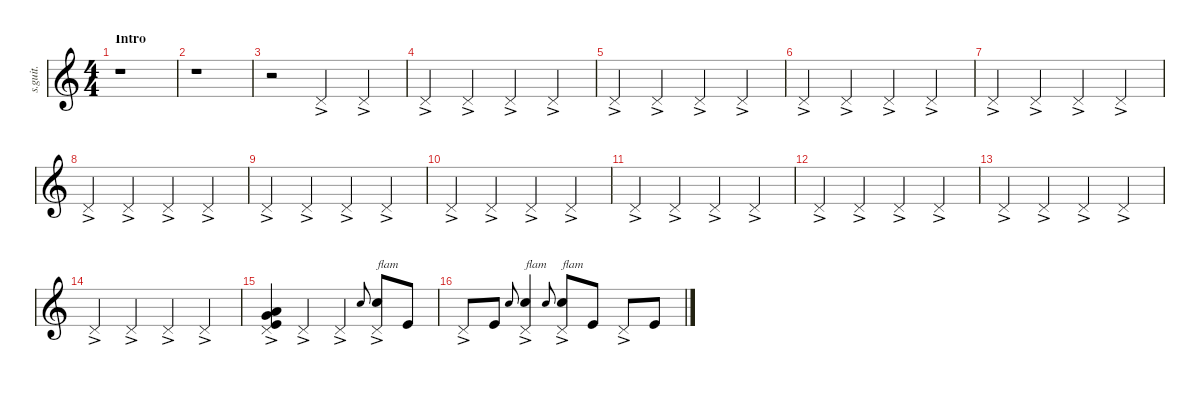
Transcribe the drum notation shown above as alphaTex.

\defaultSystemsLayout 4
\hideDynamics
\bracketExtendMode nobrackets
\track ("Dave Grohl" "s.guit.") {instrument percussion}
\staff {score}
\articulation defaults
\ts (4 4)
\beaming (8 2 2 2 2)
\section ("" "Intro")
\tempo (210 hide)
\clef g2
\ks c
r.1{dy f} |
r.1 |
r.2 "Pedal Hi-Hat (hit)"{ac}.4{lyrics (0 "") lyrics (1 "") lyrics (2 "") lyrics (3 "") lyrics (4 "")} "Pedal Hi-Hat (hit)"{ac}.4{lyrics (0 "") lyrics (1 "") lyrics (2 "") lyrics (3 "") lyrics (4 "")} |
"Pedal Hi-Hat (hit)"{ac}.4{lyrics (0 "") lyrics (1 "") lyrics (2 "") lyrics (3 "") lyrics (4 "")} "Pedal Hi-Hat (hit)"{ac}.4{lyrics (0 "") lyrics (1 "") lyrics (2 "") lyrics (3 "") lyrics (4 "")} "Pedal Hi-Hat (hit)"{ac}.4{lyrics (0 "") lyrics (1 "") lyrics (2 "") lyrics (3 "") lyrics (4 "")} "Pedal Hi-Hat (hit)"{ac}.4{lyrics (0 "") lyrics (1 "") lyrics (2 "") lyrics (3 "") lyrics (4 "")} |
"Pedal Hi-Hat (hit)"{ac}.4{lyrics (0 "") lyrics (1 "") lyrics (2 "") lyrics (3 "") lyrics (4 "")} "Pedal Hi-Hat (hit)"{ac}.4{lyrics (0 "") lyrics (1 "") lyrics (2 "") lyrics (3 "") lyrics (4 "")} "Pedal Hi-Hat (hit)"{ac}.4{lyrics (0 "") lyrics (1 "") lyrics (2 "") lyrics (3 "") lyrics (4 "")} "Pedal Hi-Hat (hit)"{ac}.4{lyrics (0 "") lyrics (1 "") lyrics (2 "") lyrics (3 "") lyrics (4 "")} |
"Pedal Hi-Hat (hit)"{ac}.4{lyrics (0 "") lyrics (1 "") lyrics (2 "") lyrics (3 "") lyrics (4 "")} "Pedal Hi-Hat (hit)"{ac}.4{lyrics (0 "") lyrics (1 "") lyrics (2 "") lyrics (3 "") lyrics (4 "")} "Pedal Hi-Hat (hit)"{ac}.4{lyrics (0 "") lyrics (1 "") lyrics (2 "") lyrics (3 "") lyrics (4 "")} "Pedal Hi-Hat (hit)"{ac}.4{lyrics (0 "") lyrics (1 "") lyrics (2 "") lyrics (3 "") lyrics (4 "")} |
"Pedal Hi-Hat (hit)"{ac}.4{lyrics (0 "") lyrics (1 "") lyrics (2 "") lyrics (3 "") lyrics (4 "")} "Pedal Hi-Hat (hit)"{ac}.4{lyrics (0 "") lyrics (1 "") lyrics (2 "") lyrics (3 "") lyrics (4 "")} "Pedal Hi-Hat (hit)"{ac}.4{lyrics (0 "") lyrics (1 "") lyrics (2 "") lyrics (3 "") lyrics (4 "")} "Pedal Hi-Hat (hit)"{ac}.4{lyrics (0 "") lyrics (1 "") lyrics (2 "") lyrics (3 "") lyrics (4 "")} |
"Pedal Hi-Hat (hit)"{ac}.4{lyrics (0 "") lyrics (1 "") lyrics (2 "") lyrics (3 "") lyrics (4 "")} "Pedal Hi-Hat (hit)"{ac}.4{lyrics (0 "") lyrics (1 "") lyrics (2 "") lyrics (3 "") lyrics (4 "")} "Pedal Hi-Hat (hit)"{ac}.4{lyrics (0 "") lyrics (1 "") lyrics (2 "") lyrics (3 "") lyrics (4 "")} "Pedal Hi-Hat (hit)"{ac}.4{lyrics (0 "") lyrics (1 "") lyrics (2 "") lyrics (3 "") lyrics (4 "")} |
"Pedal Hi-Hat (hit)"{ac}.4{lyrics (0 "") lyrics (1 "") lyrics (2 "") lyrics (3 "") lyrics (4 "")} "Pedal Hi-Hat (hit)"{ac}.4{lyrics (0 "") lyrics (1 "") lyrics (2 "") lyrics (3 "") lyrics (4 "")} "Pedal Hi-Hat (hit)"{ac}.4{lyrics (0 "") lyrics (1 "") lyrics (2 "") lyrics (3 "") lyrics (4 "")} "Pedal Hi-Hat (hit)"{ac}.4{lyrics (0 "") lyrics (1 "") lyrics (2 "") lyrics (3 "") lyrics (4 "")} |
"Pedal Hi-Hat (hit)"{ac}.4{lyrics (0 "") lyrics (1 "") lyrics (2 "") lyrics (3 "") lyrics (4 "")} "Pedal Hi-Hat (hit)"{ac}.4{lyrics (0 "") lyrics (1 "") lyrics (2 "") lyrics (3 "") lyrics (4 "")} "Pedal Hi-Hat (hit)"{ac}.4{lyrics (0 "") lyrics (1 "") lyrics (2 "") lyrics (3 "") lyrics (4 "")} "Pedal Hi-Hat (hit)"{ac}.4{lyrics (0 "") lyrics (1 "") lyrics (2 "") lyrics (3 "") lyrics (4 "")} |
"Pedal Hi-Hat (hit)"{ac}.4{lyrics (0 "") lyrics (1 "") lyrics (2 "") lyrics (3 "") lyrics (4 "")} "Pedal Hi-Hat (hit)"{ac}.4{lyrics (0 "") lyrics (1 "") lyrics (2 "") lyrics (3 "") lyrics (4 "")} "Pedal Hi-Hat (hit)"{ac}.4{lyrics (0 "") lyrics (1 "") lyrics (2 "") lyrics (3 "") lyrics (4 "")} "Pedal Hi-Hat (hit)"{ac}.4{lyrics (0 "") lyrics (1 "") lyrics (2 "") lyrics (3 "") lyrics (4 "")} |
"Pedal Hi-Hat (hit)"{ac}.4{lyrics (0 "") lyrics (1 "") lyrics (2 "") lyrics (3 "") lyrics (4 "")} "Pedal Hi-Hat (hit)"{ac}.4{lyrics (0 "") lyrics (1 "") lyrics (2 "") lyrics (3 "") lyrics (4 "")} "Pedal Hi-Hat (hit)"{ac}.4{lyrics (0 "") lyrics (1 "") lyrics (2 "") lyrics (3 "") lyrics (4 "")} "Pedal Hi-Hat (hit)"{ac}.4{lyrics (0 "") lyrics (1 "") lyrics (2 "") lyrics (3 "") lyrics (4 "")} |
"Pedal Hi-Hat (hit)"{ac}.4{lyrics (0 "") lyrics (1 "") lyrics (2 "") lyrics (3 "") lyrics (4 "")} "Pedal Hi-Hat (hit)"{ac}.4{lyrics (0 "") lyrics (1 "") lyrics (2 "") lyrics (3 "") lyrics (4 "")} "Pedal Hi-Hat (hit)"{ac}.4{lyrics (0 "") lyrics (1 "") lyrics (2 "") lyrics (3 "") lyrics (4 "")} "Pedal Hi-Hat (hit)"{ac}.4{lyrics (0 "") lyrics (1 "") lyrics (2 "") lyrics (3 "") lyrics (4 "")} |
"Pedal Hi-Hat (hit)"{ac}.4{lyrics (0 "") lyrics (1 "") lyrics (2 "") lyrics (3 "") lyrics (4 "")} "Pedal Hi-Hat (hit)"{ac}.4{lyrics (0 "") lyrics (1 "") lyrics (2 "") lyrics (3 "") lyrics (4 "")} "Pedal Hi-Hat (hit)"{ac}.4{lyrics (0 "") lyrics (1 "") lyrics (2 "") lyrics (3 "") lyrics (4 "")} "Pedal Hi-Hat (hit)"{ac}.4{lyrics (0 "") lyrics (1 "") lyrics (2 "") lyrics (3 "") lyrics (4 "")} |
("Pedal Hi-Hat (hit)"{ac} "Kick (hit)" "Low Floor Tom (hit)" "Very Low Tom (hit)").4{lyrics (0 "") lyrics (1 "") lyrics (2 "") lyrics (3 "") lyrics (4 "")} "Pedal Hi-Hat (hit)"{ac}.4{lyrics (0 "") lyrics (1 "") lyrics (2 "") lyrics (3 "") lyrics (4 "")} "Pedal Hi-Hat (hit)"{ac}.4{lyrics (0 "") lyrics (1 "") lyrics (2 "") lyrics (3 "") lyrics (4 "")} "Snare (hit) 2".8{lyrics (0 "") lyrics (1 "") lyrics (2 "") lyrics (3 "") lyrics (4 "") gr onbeat} ("Pedal Hi-Hat (hit)"{ac} "Snare (hit) 2").8{txt "flam" lyrics (0 "") lyrics (1 "") lyrics (2 "") lyrics (3 "") lyrics (4 "")} "Kick (hit)".8{lyrics (0 "") lyrics (1 "") lyrics (2 "") lyrics (3 "") lyrics (4 "")} |
"Pedal Hi-Hat (hit)"{ac}.8{lyrics (0 "") lyrics (1 "") lyrics (2 "") lyrics (3 "") lyrics (4 "")} "Kick (hit)".8{lyrics (0 "") lyrics (1 "") lyrics (2 "") lyrics (3 "") lyrics (4 "")} "Snare (hit) 2".8{lyrics (0 "") lyrics (1 "") lyrics (2 "") lyrics (3 "") lyrics (4 "") gr onbeat} ("Pedal Hi-Hat (hit)"{ac} "Snare (hit) 2").4{txt "flam" lyrics (0 "") lyrics (1 "") lyrics (2 "") lyrics (3 "") lyrics (4 "")} "Snare (hit) 2".8{lyrics (0 "") lyrics (1 "") lyrics (2 "") lyrics (3 "") lyrics (4 "") gr onbeat} ("Pedal Hi-Hat (hit)"{ac} "Snare (hit) 2").8{txt "flam" lyrics (0 "") lyrics (1 "") lyrics (2 "") lyrics (3 "") lyrics (4 "")} "Kick (hit)".8{lyrics (0 "") lyrics (1 "") lyrics (2 "") lyrics (3 "") lyrics (4 "")} "Pedal Hi-Hat (hit)"{ac}.8{lyrics (0 "") lyrics (1 "") lyrics (2 "") lyrics (3 "") lyrics (4 "")} "Kick (hit)".8{lyrics (0 "") lyrics (1 "") lyrics (2 "") lyrics (3 "") lyrics (4 "")}
